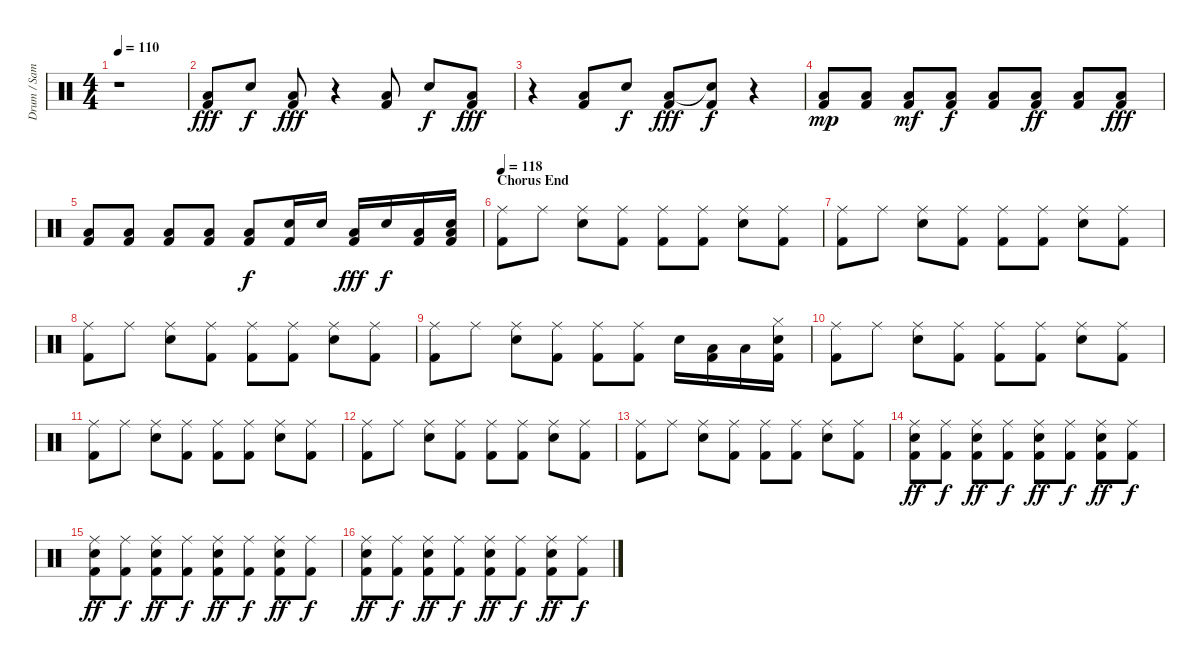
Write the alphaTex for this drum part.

\track ("Drum / Sam" "Drum / Sam") {instrument percussion}
\staff {score}
\articulation defaults
\ts (4 4)
\tempo 110
\clef neutral
\ks c
r.1{dy f} |
("Low Tom (hit)" "Kick (hit) 2").8{dy fff} "Snare (hit) 2".8{dy f} ("Low Tom (hit)" "Kick (hit) 2").8{dy fff} r.4 ("Low Tom (hit)" "Kick (hit) 2").8 "Snare (hit) 2".8{dy f} ("Low Tom (hit)" "Kick (hit) 2").8{dy fff} |
r.4 ("Low Tom (hit)" "Kick (hit) 2").8 "Snare (hit) 2".8{dy f} ("Low Tom (hit)" "Kick (hit) 2").8{dy fff} ("Snare (hit) 2"{t} "Kick (hit) 2").8{dy f} r.4 |
("Low Tom (hit)" "Kick (hit) 2").8{dy mp} ("Low Tom (hit)" "Kick (hit) 2").8 ("Low Tom (hit)" "Kick (hit) 2").8{dy mf} ("Low Tom (hit)" "Kick (hit) 2").8{dy f} ("Low Tom (hit)" "Kick (hit) 2").8 ("Low Tom (hit)" "Kick (hit) 2").8{dy ff} ("Low Tom (hit)" "Kick (hit) 2").8 ("Low Tom (hit)" "Kick (hit) 2").8{dy fff} |
("Low Tom (hit)" "Kick (hit) 2").8 ("Low Tom (hit)" "Kick (hit) 2").8 ("Low Tom (hit)" "Kick (hit) 2").8 ("Low Tom (hit)" "Kick (hit) 2").8 ("Low Tom (hit)" "Kick (hit) 2").8{dy f} ("Snare (hit) 2" "Kick (hit) 2").16 "Snare (hit) 2".16 ("Low Tom (hit)" "Kick (hit) 2").16{dy fff} "Snare (hit) 2".16{dy f} ("Low Tom (hit)" "Kick (hit) 2").16 ("Snare (hit) 2" "Low Tom (hit)" "Kick (hit) 2").16 |
\section ("" "Chorus End")
\tempo 118
("Ride (middle)" "Kick (hit) 2").8 "Ride (middle)".8 ("Ride (middle)" "Snare (hit) 2").8 ("Ride (middle)" "Kick (hit) 2").8 ("Ride (middle)" "Kick (hit) 2").8 ("Ride (middle)" "Kick (hit) 2").8 ("Ride (middle)" "Snare (hit) 2").8 ("Ride (middle)" "Kick (hit) 2").8 |
("Ride (middle)" "Kick (hit) 2").8 "Ride (middle)".8 ("Ride (middle)" "Snare (hit) 2").8 ("Ride (middle)" "Kick (hit) 2").8 ("Ride (middle)" "Kick (hit) 2").8 ("Ride (middle)" "Kick (hit) 2").8 ("Ride (middle)" "Snare (hit) 2").8 ("Ride (middle)" "Kick (hit) 2").8 |
("Ride (middle)" "Kick (hit) 2").8 "Ride (middle)".8 ("Ride (middle)" "Snare (hit) 2").8 ("Ride (middle)" "Kick (hit) 2").8 ("Ride (middle)" "Kick (hit) 2").8 ("Ride (middle)" "Kick (hit) 2").8 ("Ride (middle)" "Snare (hit) 2").8 ("Ride (middle)" "Kick (hit) 2").8 |
("Ride (middle)" "Kick (hit) 2").8 "Ride (middle)".8 ("Ride (middle)" "Snare (hit) 2").8 ("Ride (middle)" "Kick (hit) 2").8 ("Ride (middle)" "Kick (hit) 2").8 ("Ride (middle)" "Kick (hit) 2").8 "Snare (hit) 2".16 ("Low Tom (hit)" "Kick (hit) 2").16 "Low Tom (hit)".16 ("Hi-Hat (closed)" "Snare (hit) 2" "Kick (hit) 2").16 |
("Ride (middle)" "Kick (hit) 2").8 "Ride (middle)".8 ("Ride (middle)" "Snare (hit) 2").8 ("Ride (middle)" "Kick (hit) 2").8 ("Ride (middle)" "Kick (hit) 2").8 ("Ride (middle)" "Kick (hit) 2").8 ("Ride (middle)" "Snare (hit) 2").8 ("Ride (middle)" "Kick (hit) 2").8 |
("Ride (middle)" "Kick (hit) 2").8 "Ride (middle)".8 ("Ride (middle)" "Snare (hit) 2").8 ("Ride (middle)" "Kick (hit) 2").8 ("Ride (middle)" "Kick (hit) 2").8 ("Ride (middle)" "Kick (hit) 2").8 ("Ride (middle)" "Snare (hit) 2").8 ("Ride (middle)" "Kick (hit) 2").8 |
("Ride (middle)" "Kick (hit) 2").8 "Ride (middle)".8 ("Ride (middle)" "Snare (hit) 2").8 ("Ride (middle)" "Kick (hit) 2").8 ("Ride (middle)" "Kick (hit) 2").8 ("Ride (middle)" "Kick (hit) 2").8 ("Ride (middle)" "Snare (hit) 2").8 ("Ride (middle)" "Kick (hit) 2").8 |
("Ride (middle)" "Kick (hit) 2").8 "Ride (middle)".8 ("Ride (middle)" "Snare (hit) 2").8 ("Ride (middle)" "Kick (hit) 2").8 ("Ride (middle)" "Kick (hit) 2").8 ("Ride (middle)" "Kick (hit) 2").8 ("Ride (middle)" "Snare (hit) 2").8 ("Ride (middle)" "Kick (hit) 2").8 |
("Ride (middle)" "Snare (hit) 2" "Kick (hit) 2").8{dy ff} ("Ride (middle)" "Kick (hit) 2").8{dy f} ("Ride (middle)" "Snare (hit) 2" "Kick (hit) 2").8{dy ff} ("Ride (middle)" "Kick (hit) 2").8{dy f} ("Ride (middle)" "Snare (hit) 2" "Kick (hit) 2").8{dy ff} ("Ride (middle)" "Kick (hit) 2").8{dy f} ("Ride (middle)" "Snare (hit) 2" "Kick (hit) 2").8{dy ff} ("Ride (middle)" "Kick (hit) 2").8{dy f} |
("Ride (middle)" "Snare (hit) 2" "Kick (hit) 2").8{dy ff} ("Ride (middle)" "Kick (hit) 2").8{dy f} ("Ride (middle)" "Snare (hit) 2" "Kick (hit) 2").8{dy ff} ("Ride (middle)" "Kick (hit) 2").8{dy f} ("Ride (middle)" "Snare (hit) 2" "Kick (hit) 2").8{dy ff} ("Ride (middle)" "Kick (hit) 2").8{dy f} ("Ride (middle)" "Snare (hit) 2" "Kick (hit) 2").8{dy ff} ("Ride (middle)" "Kick (hit) 2").8{dy f} |
("Ride (middle)" "Snare (hit) 2" "Kick (hit) 2").8{dy ff} ("Ride (middle)" "Kick (hit) 2").8{dy f} ("Ride (middle)" "Snare (hit) 2" "Kick (hit) 2").8{dy ff} ("Ride (middle)" "Kick (hit) 2").8{dy f} ("Ride (middle)" "Snare (hit) 2" "Kick (hit) 2").8{dy ff} ("Ride (middle)" "Kick (hit) 2").8{dy f} ("Ride (middle)" "Snare (hit) 2" "Kick (hit) 2").8{dy ff} ("Ride (middle)" "Kick (hit) 2").8{dy f}
